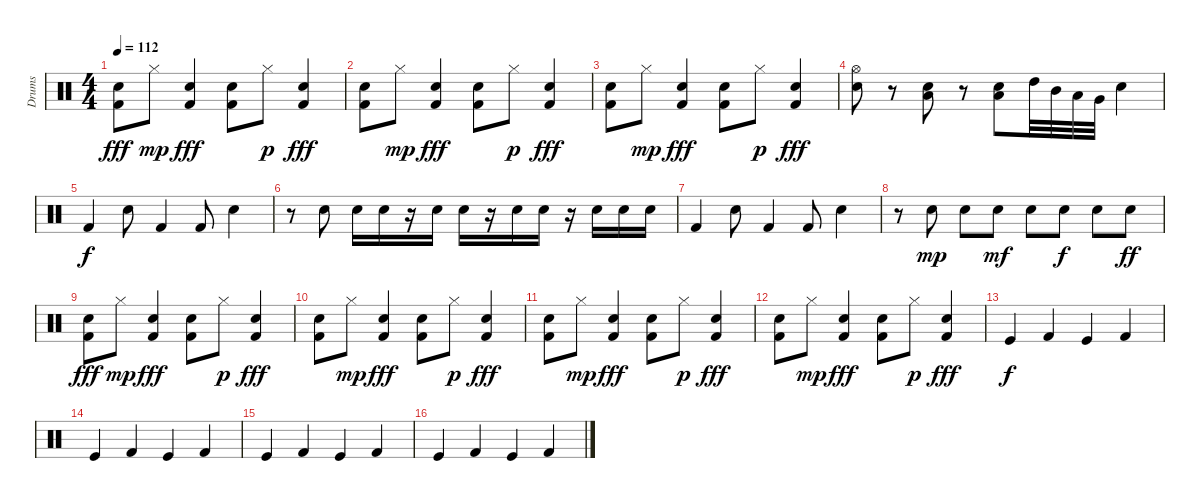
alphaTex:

\track ("Drums" "Drums") {instrument percussion}
\staff {score}
\articulation defaults
\ts (4 4)
\tempo 112
\clef neutral
\ks c
("Electric Snare (hit)" "Kick (hit) 2").8{dy fff} "Hi-Hat (closed)".8{dy mp} ("Electric Snare (hit)" "Kick (hit) 2").4{dy fff} ("Electric Snare (hit)" "Kick (hit) 2").8 "Hi-Hat (closed)".8{dy p} ("Electric Snare (hit)" "Kick (hit) 2").4{dy fff} |
("Electric Snare (hit)" "Kick (hit) 2").8 "Hi-Hat (closed)".8{dy mp} ("Electric Snare (hit)" "Kick (hit) 2").4{dy fff} ("Electric Snare (hit)" "Kick (hit) 2").8 "Hi-Hat (closed)".8{dy p} ("Electric Snare (hit)" "Kick (hit) 2").4{dy fff} |
("Electric Snare (hit)" "Kick (hit) 2").8 "Hi-Hat (closed)".8{dy mp} ("Electric Snare (hit)" "Kick (hit) 2").4{dy fff} ("Electric Snare (hit)" "Kick (hit) 2").8 "Hi-Hat (closed)".8{dy p} ("Electric Snare (hit)" "Kick (hit) 2").4{dy fff} |
("Hi-Hat (open)" "Snare (hit) 2").8 r.8 ("Snare (hit) 2" "Low Tom (hit)").8 r.8 ("Snare (hit) 2" "Low Tom (hit)").8 "High Tom (hit)".32 "Mid Tom (hit)".32 "Low Tom (hit)".32 "Very Low Tom (hit)".32 "Snare (hit) 2".4 |
"Kick (hit) 2".4{dy f} "Snare (hit) 2".8 "Kick (hit) 2".4 "Kick (hit) 2".8 "Snare (hit) 2".4 |
r.8 "Electric Snare (hit)".8 "Electric Snare (hit)".16 "Electric Snare (hit)".16 r.16 "Electric Snare (hit)".16 "Electric Snare (hit)".16 r.16 "Electric Snare (hit)".16 "Electric Snare (hit)".16 r.16 "Electric Snare (hit)".16 "Electric Snare (hit)".16 "Electric Snare (hit)".16 |
"Kick (hit) 2".4 "Snare (hit) 2".8 "Kick (hit) 2".4 "Kick (hit) 2".8 "Snare (hit) 2".4 |
r.8 "Electric Snare (hit)".8{dy mp} "Electric Snare (hit)".8 "Electric Snare (hit)".8{dy mf} "Electric Snare (hit)".8 "Electric Snare (hit)".8{dy f} "Electric Snare (hit)".8 "Electric Snare (hit)".8{dy ff} |
("Electric Snare (hit)" "Kick (hit) 2").8{dy fff} "Hi-Hat (closed)".8{dy mp} ("Electric Snare (hit)" "Kick (hit) 2").4{dy fff} ("Electric Snare (hit)" "Kick (hit) 2").8 "Hi-Hat (closed)".8{dy p} ("Electric Snare (hit)" "Kick (hit) 2").4{dy fff} |
("Electric Snare (hit)" "Kick (hit) 2").8 "Hi-Hat (closed)".8{dy mp} ("Electric Snare (hit)" "Kick (hit) 2").4{dy fff} ("Electric Snare (hit)" "Kick (hit) 2").8 "Hi-Hat (closed)".8{dy p} ("Electric Snare (hit)" "Kick (hit) 2").4{dy fff} |
("Electric Snare (hit)" "Kick (hit) 2").8 "Hi-Hat (closed)".8{dy mp} ("Electric Snare (hit)" "Kick (hit) 2").4{dy fff} ("Electric Snare (hit)" "Kick (hit) 2").8 "Hi-Hat (closed)".8{dy p} ("Electric Snare (hit)" "Kick (hit) 2").4{dy fff} |
("Electric Snare (hit)" "Kick (hit) 2").8 "Hi-Hat (closed)".8{dy mp} ("Electric Snare (hit)" "Kick (hit) 2").4{dy fff} ("Electric Snare (hit)" "Kick (hit) 2").8 "Hi-Hat (closed)".8{dy p} ("Electric Snare (hit)" "Kick (hit) 2").4{dy fff} |
"Kick (hit)".4{dy f} "Kick (hit) 2".4 "Kick (hit)".4 "Kick (hit) 2".4 |
"Kick (hit)".4 "Kick (hit) 2".4 "Kick (hit)".4 "Kick (hit) 2".4 |
"Kick (hit)".4 "Kick (hit) 2".4 "Kick (hit)".4 "Kick (hit) 2".4 |
"Kick (hit)".4 "Kick (hit) 2".4 "Kick (hit)".4 "Kick (hit) 2".4
